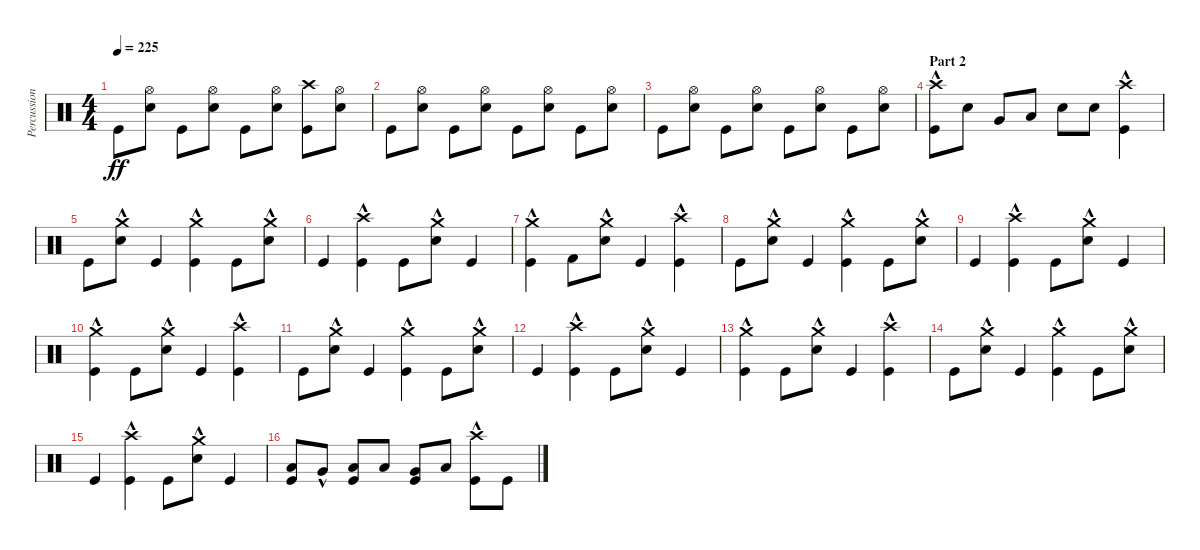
\track ("Percussions" "Percussion") {instrument percussion}
\staff {score}
\articulation defaults
\ts (4 4)
\tempo 225
\clef neutral
\ks c "Kick (hit)".8{dy ff}
("Electric Snare (hit)" "Hi-Hat (open)").8 "Kick (hit)".8 ("Electric Snare (hit)" "Hi-Hat (open)").8 "Kick (hit)".8 ("Electric Snare (hit)" "Hi-Hat (open)").8 ("Kick (hit)" "Crash high (hit)").8 ("Electric Snare (hit)" "Hi-Hat (open)").8 |
"Kick (hit)".8 ("Electric Snare (hit)" "Hi-Hat (open)").8 "Kick (hit)".8 ("Electric Snare (hit)" "Hi-Hat (open)").8 "Kick (hit)".8 ("Electric Snare (hit)" "Hi-Hat (open)").8 "Kick (hit)".8 ("Electric Snare (hit)" "Hi-Hat (open)").8 |
"Kick (hit)".8 ("Electric Snare (hit)" "Hi-Hat (open)").8 "Kick (hit)".8 ("Electric Snare (hit)" "Hi-Hat (open)").8 "Kick (hit)".8 ("Electric Snare (hit)" "Hi-Hat (open)").8 "Kick (hit)".8 ("Electric Snare (hit)" "Hi-Hat (open)").8 |
\section ("" "Part 2")
("Kick (hit)"{hac} "Crash high (hit)"{hac}).8 "Electric Snare (hit)".8 "Very Low Tom (hit)".8 "Low Floor Tom (hit)".8 "Electric Snare (hit)".8 "Electric Snare (hit)".8 ("Kick (hit)" "Crash high (hit)"{hac}).4 |
"Kick (hit)".8 ("Electric Snare (hit)"{hac} "Crash medium (hit)"{hac}).8 "Kick (hit)".4 ("Kick (hit)" "Crash medium (hit)"{hac}).4 "Kick (hit)".8 ("Electric Snare (hit)"{hac} "Crash medium (hit)"{hac}).8 |
"Kick (hit)".4 ("Kick (hit)" "Crash high (hit)"{hac}).4 "Kick (hit)".8 ("Electric Snare (hit)"{hac} "Crash medium (hit)"{hac}).8 "Kick (hit)".4 |
("Kick (hit)" "Crash medium (hit)"{hac}).4 "Kick (hit) 2".8 ("Electric Snare (hit)"{hac} "Crash medium (hit)"{hac}).8 "Kick (hit)".4 ("Kick (hit)" "Crash high (hit)"{hac}).4 |
"Kick (hit)".8 ("Electric Snare (hit)"{hac} "Crash medium (hit)"{hac}).8 "Kick (hit)".4 ("Kick (hit)" "Crash medium (hit)"{hac}).4 "Kick (hit)".8 ("Electric Snare (hit)"{hac} "Crash medium (hit)"{hac}).8 |
"Kick (hit)".4 ("Kick (hit)" "Crash high (hit)"{hac}).4 "Kick (hit)".8 ("Electric Snare (hit)"{hac} "Crash medium (hit)"{hac}).8 "Kick (hit)".4 |
("Kick (hit)" "Crash medium (hit)"{hac}).4 "Kick (hit)".8 ("Electric Snare (hit)"{hac} "Crash medium (hit)"{hac}).8 "Kick (hit)".4 ("Kick (hit)" "Crash high (hit)"{hac}).4 |
"Kick (hit)".8 ("Electric Snare (hit)"{hac} "Crash medium (hit)"{hac}).8 "Kick (hit)".4 ("Kick (hit)" "Crash medium (hit)"{hac}).4 "Kick (hit)".8 ("Electric Snare (hit)"{hac} "Crash medium (hit)"{hac}).8 |
"Kick (hit)".4 ("Kick (hit)" "Crash high (hit)"{hac}).4 "Kick (hit)".8 ("Electric Snare (hit)"{hac} "Crash medium (hit)"{hac}).8 "Kick (hit)".4 |
("Kick (hit)" "Crash medium (hit)"{hac}).4 "Kick (hit)".8 ("Electric Snare (hit)"{hac} "Crash medium (hit)"{hac}).8 "Kick (hit)".4 ("Kick (hit)" "Crash high (hit)"{hac}).4 |
"Kick (hit)".8 ("Electric Snare (hit)"{hac} "Crash medium (hit)"{hac}).8 "Kick (hit)".4 ("Kick (hit)" "Crash medium (hit)"{hac}).4 "Kick (hit)".8 ("Electric Snare (hit)"{hac} "Crash medium (hit)"{hac}).8 |
"Kick (hit)".4 ("Kick (hit)" "Crash high (hit)"{hac}).4 "Kick (hit)".8 ("Electric Snare (hit)"{hac} "Crash medium (hit)").8 "Kick (hit)".4 |
("Kick (hit)" "Low Tom (hit)").8 "Very Low Tom (hit)"{hac}.8 ("Kick (hit)" "Low Floor Tom (hit)").8 "Low Tom (hit)".8 ("Kick (hit)" "Very Low Tom (hit)").8 "Low Floor Tom (hit)".8 ("Kick (hit)" "Crash high (hit)"{hac}).8 "Kick (hit)".8
